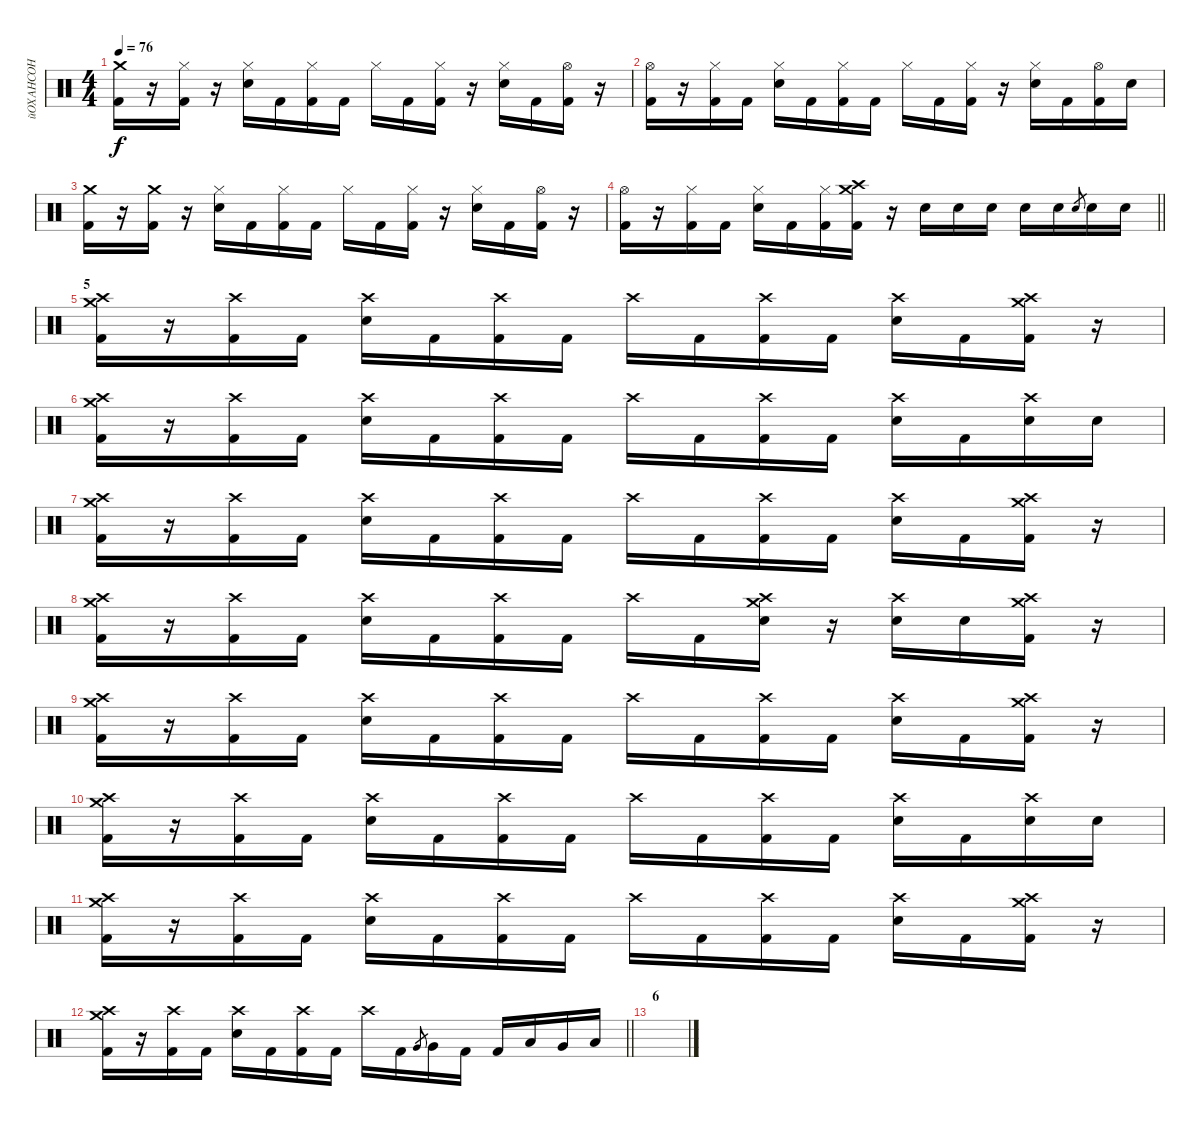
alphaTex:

\track ("йОХАНСОН" "йОХАНСОН") {instrument percussion}
\staff {score}
\articulation defaults
\ts (4 4)
\tempo 76
\clef neutral
\ks c
("Crash medium (hit)" "Kick (hit) 2").16{dy f} r.16 ("Hi-Hat (closed)" "Kick (hit) 2").16 r.16 ("Hi-Hat (closed)" "Snare (hit) 2").16 "Kick (hit) 2".16 ("Hi-Hat (closed)" "Kick (hit) 2").16 "Kick (hit) 2".16 "Hi-Hat (closed)".16 "Kick (hit) 2".16 ("Hi-Hat (closed)" "Kick (hit) 2").16 r.16 ("Hi-Hat (closed)" "Snare (hit) 2").16 "Kick (hit) 2".16 ("Hi-Hat (open)" "Kick (hit) 2").16 r.16 |
("Hi-Hat (open)" "Kick (hit) 2").16 r.16 ("Hi-Hat (closed)" "Kick (hit) 2").16 "Kick (hit) 2".16 ("Hi-Hat (closed)" "Snare (hit) 2").16 "Kick (hit) 2".16 ("Hi-Hat (closed)" "Kick (hit) 2").16 "Kick (hit) 2".16 "Hi-Hat (closed)".16 "Kick (hit) 2".16 ("Hi-Hat (closed)" "Kick (hit) 2").16 r.16 ("Hi-Hat (closed)" "Snare (hit) 2").16 "Kick (hit) 2".16 ("Hi-Hat (open)" "Kick (hit) 2").16 "Snare (hit) 2".16 |
("Crash medium (hit)" "Kick (hit) 2").16 r.16 ("Crash medium (hit)" "Kick (hit) 2").16 r.16 ("Hi-Hat (closed)" "Snare (hit) 2").16 "Kick (hit) 2".16 ("Hi-Hat (closed)" "Kick (hit) 2").16 "Kick (hit) 2".16 "Hi-Hat (closed)".16 "Kick (hit) 2".16 ("Hi-Hat (closed)" "Kick (hit) 2").16 r.16 ("Hi-Hat (closed)" "Snare (hit) 2").16 "Kick (hit) 2".16 ("Hi-Hat (open)" "Kick (hit) 2").16 r.16 |
\barLineRight lightlight
("Hi-Hat (open)" "Kick (hit) 2").16 r.16 ("Hi-Hat (closed)" "Kick (hit) 2").16 "Kick (hit) 2".16 ("Hi-Hat (closed)" "Snare (hit) 2").16 "Kick (hit) 2".16 ("Hi-Hat (closed)" "Kick (hit) 2").16 ("Crash high (hit)" "Crash medium (hit)" "Kick (hit) 2").16 r.16 "Snare (hit) 2".16 "Snare (hit) 2".16 "Snare (hit) 2".16 "Snare (hit) 2".16 "Snare (hit) 2".16 "Snare (hit) 2".8{gr} "Snare (hit) 2".16 "Snare (hit) 2".16 |
\section ("" "5")
("Crash high (hit)" "Crash medium (hit)" "Kick (hit) 2").16 r.16 ("Crash high (hit)" "Kick (hit) 2").16 "Kick (hit) 2".16 ("Crash high (hit)" "Snare (hit) 2").16 "Kick (hit) 2".16 ("Crash high (hit)" "Kick (hit) 2").16 "Kick (hit) 2".16 "Crash high (hit)".16 "Kick (hit) 2".16 ("Crash high (hit)" "Kick (hit) 2").16 "Kick (hit) 2".16 ("Crash high (hit)" "Snare (hit) 2").16 "Kick (hit) 2".16 ("Crash high (hit)" "Crash medium (hit)" "Kick (hit) 2").16 r.16 |
("Crash high (hit)" "Crash medium (hit)" "Kick (hit) 2").16 r.16 ("Crash high (hit)" "Kick (hit) 2").16 "Kick (hit) 2".16 ("Crash high (hit)" "Snare (hit) 2").16 "Kick (hit) 2".16 ("Crash high (hit)" "Kick (hit) 2").16 "Kick (hit) 2".16 "Crash high (hit)".16 "Kick (hit) 2".16 ("Crash high (hit)" "Kick (hit) 2").16 "Kick (hit) 2".16 ("Crash high (hit)" "Snare (hit) 2").16 "Kick (hit) 2".16 ("Crash high (hit)" "Snare (hit) 2").16 "Snare (hit) 2".16 |
("Crash high (hit)" "Crash medium (hit)" "Kick (hit) 2").16 r.16 ("Crash high (hit)" "Kick (hit) 2").16 "Kick (hit) 2".16 ("Crash high (hit)" "Snare (hit) 2").16 "Kick (hit) 2".16 ("Crash high (hit)" "Kick (hit) 2").16 "Kick (hit) 2".16 "Crash high (hit)".16 "Kick (hit) 2".16 ("Crash high (hit)" "Kick (hit) 2").16 "Kick (hit) 2".16 ("Crash high (hit)" "Snare (hit) 2").16 "Kick (hit) 2".16 ("Crash high (hit)" "Crash medium (hit)" "Kick (hit) 2").16 r.16 |
("Crash high (hit)" "Crash medium (hit)" "Kick (hit) 2").16 r.16 ("Crash high (hit)" "Kick (hit) 2").16 "Kick (hit) 2".16 ("Crash high (hit)" "Snare (hit) 2").16 "Kick (hit) 2".16 ("Crash high (hit)" "Kick (hit) 2").16 "Kick (hit) 2".16 "Crash high (hit)".16 "Kick (hit) 2".16 ("Crash high (hit)" "Crash medium (hit)" "Snare (hit) 2").16 r.16 ("Crash high (hit)" "Snare (hit) 2").16 "Snare (hit) 2".16 ("Crash high (hit)" "Crash medium (hit)" "Kick (hit) 2").16 r.16 |
("Crash high (hit)" "Crash medium (hit)" "Kick (hit) 2").16 r.16 ("Crash high (hit)" "Kick (hit) 2").16 "Kick (hit) 2".16 ("Crash high (hit)" "Snare (hit) 2").16 "Kick (hit) 2".16 ("Crash high (hit)" "Kick (hit) 2").16 "Kick (hit) 2".16 "Crash high (hit)".16 "Kick (hit) 2".16 ("Crash high (hit)" "Kick (hit) 2").16 "Kick (hit) 2".16 ("Crash high (hit)" "Snare (hit) 2").16 "Kick (hit) 2".16 ("Crash high (hit)" "Crash medium (hit)" "Kick (hit) 2").16 r.16 |
("Crash high (hit)" "Crash medium (hit)" "Kick (hit) 2").16 r.16 ("Crash high (hit)" "Kick (hit) 2").16 "Kick (hit) 2".16 ("Crash high (hit)" "Snare (hit) 2").16 "Kick (hit) 2".16 ("Crash high (hit)" "Kick (hit) 2").16 "Kick (hit) 2".16 "Crash high (hit)".16 "Kick (hit) 2".16 ("Crash high (hit)" "Kick (hit) 2").16 "Kick (hit) 2".16 ("Crash high (hit)" "Snare (hit) 2").16 "Kick (hit) 2".16 ("Crash high (hit)" "Snare (hit) 2").16 "Snare (hit) 2".16 |
("Crash high (hit)" "Crash medium (hit)" "Kick (hit) 2").16 r.16 ("Crash high (hit)" "Kick (hit) 2").16 "Kick (hit) 2".16 ("Crash high (hit)" "Snare (hit) 2").16 "Kick (hit) 2".16 ("Crash high (hit)" "Kick (hit) 2").16 "Kick (hit) 2".16 "Crash high (hit)".16 "Kick (hit) 2".16 ("Crash high (hit)" "Kick (hit) 2").16 "Kick (hit) 2".16 ("Crash high (hit)" "Snare (hit) 2").16 "Kick (hit) 2".16 ("Crash high (hit)" "Crash medium (hit)" "Kick (hit) 2").16 r.16 |
\barLineRight lightlight
("Crash high (hit)" "Crash medium (hit)" "Kick (hit) 2").16 r.16 ("Crash high (hit)" "Kick (hit) 2").16 "Kick (hit) 2".16 ("Crash high (hit)" "Snare (hit) 2").16 "Kick (hit) 2".16 ("Crash high (hit)" "Kick (hit) 2").16 "Kick (hit) 2".16 "Crash high (hit)".16 "Kick (hit) 2".16 "Very Low Tom (hit)".8{gr} "Very Low Tom (hit)".16 "Kick (hit) 2".16 "Kick (hit) 2".16 "Low Floor Tom (hit)".16 "Very Low Tom (hit)".16 "Low Floor Tom (hit)".16 |
\section ("" "6")
